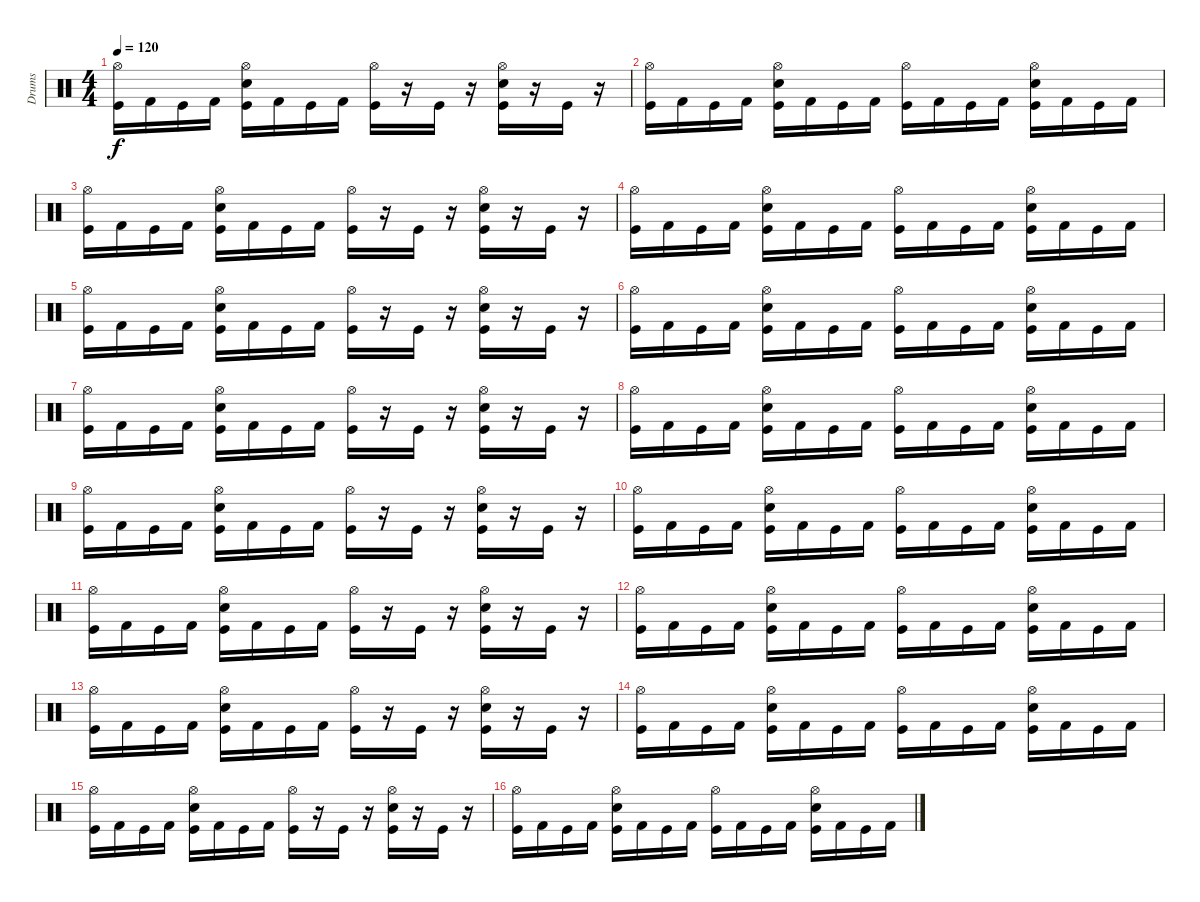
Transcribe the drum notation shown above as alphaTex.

\track ("Drums" "Drums") {instrument percussion}
\staff {score}
\articulation defaults
\ts (4 4)
\tempo 120
\clef neutral
\ks c
("Hi-Hat (open)" "Kick (hit)").16{dy f} "Kick (hit) 2".16 "Kick (hit)".16 "Kick (hit) 2".16 ("Hi-Hat (open)" "Snare (hit) 2" "Kick (hit)").16 "Kick (hit) 2".16 "Kick (hit)".16 "Kick (hit) 2".16 ("Hi-Hat (open)" "Kick (hit)").16 r.16 "Kick (hit)".16 r.16 ("Hi-Hat (open)" "Snare (hit) 2" "Kick (hit)").16 r.16 "Kick (hit)".16 r.16 |
("Hi-Hat (open)" "Kick (hit)").16 "Kick (hit) 2".16 "Kick (hit)".16 "Kick (hit) 2".16 ("Hi-Hat (open)" "Snare (hit) 2" "Kick (hit)").16 "Kick (hit) 2".16 "Kick (hit)".16 "Kick (hit) 2".16 ("Hi-Hat (open)" "Kick (hit)").16 "Kick (hit) 2".16 "Kick (hit)".16 "Kick (hit) 2".16 ("Hi-Hat (open)" "Snare (hit) 2" "Kick (hit)").16 "Kick (hit) 2".16 "Kick (hit)".16 "Kick (hit) 2".16 |
("Hi-Hat (open)" "Kick (hit)").16 "Kick (hit) 2".16 "Kick (hit)".16 "Kick (hit) 2".16 ("Hi-Hat (open)" "Snare (hit) 2" "Kick (hit)").16 "Kick (hit) 2".16 "Kick (hit)".16 "Kick (hit) 2".16 ("Hi-Hat (open)" "Kick (hit)").16 r.16 "Kick (hit)".16 r.16 ("Hi-Hat (open)" "Snare (hit) 2" "Kick (hit)").16 r.16 "Kick (hit)".16 r.16 |
("Hi-Hat (open)" "Kick (hit)").16 "Kick (hit) 2".16 "Kick (hit)".16 "Kick (hit) 2".16 ("Hi-Hat (open)" "Snare (hit) 2" "Kick (hit)").16 "Kick (hit) 2".16 "Kick (hit)".16 "Kick (hit) 2".16 ("Hi-Hat (open)" "Kick (hit)").16 "Kick (hit) 2".16 "Kick (hit)".16 "Kick (hit) 2".16 ("Hi-Hat (open)" "Snare (hit) 2" "Kick (hit)").16 "Kick (hit) 2".16 "Kick (hit)".16 "Kick (hit) 2".16 |
("Hi-Hat (open)" "Kick (hit)").16 "Kick (hit) 2".16 "Kick (hit)".16 "Kick (hit) 2".16 ("Hi-Hat (open)" "Snare (hit) 2" "Kick (hit)").16 "Kick (hit) 2".16 "Kick (hit)".16 "Kick (hit) 2".16 ("Hi-Hat (open)" "Kick (hit)").16 r.16 "Kick (hit)".16 r.16 ("Hi-Hat (open)" "Snare (hit) 2" "Kick (hit)").16 r.16 "Kick (hit)".16 r.16 |
("Hi-Hat (open)" "Kick (hit)").16 "Kick (hit) 2".16 "Kick (hit)".16 "Kick (hit) 2".16 ("Hi-Hat (open)" "Snare (hit) 2" "Kick (hit)").16 "Kick (hit) 2".16 "Kick (hit)".16 "Kick (hit) 2".16 ("Hi-Hat (open)" "Kick (hit)").16 "Kick (hit) 2".16 "Kick (hit)".16 "Kick (hit) 2".16 ("Hi-Hat (open)" "Snare (hit) 2" "Kick (hit)").16 "Kick (hit) 2".16 "Kick (hit)".16 "Kick (hit) 2".16 |
("Hi-Hat (open)" "Kick (hit)").16 "Kick (hit) 2".16 "Kick (hit)".16 "Kick (hit) 2".16 ("Hi-Hat (open)" "Snare (hit) 2" "Kick (hit)").16 "Kick (hit) 2".16 "Kick (hit)".16 "Kick (hit) 2".16 ("Hi-Hat (open)" "Kick (hit)").16 r.16 "Kick (hit)".16 r.16 ("Hi-Hat (open)" "Snare (hit) 2" "Kick (hit)").16 r.16 "Kick (hit)".16 r.16 |
("Hi-Hat (open)" "Kick (hit)").16 "Kick (hit) 2".16 "Kick (hit)".16 "Kick (hit) 2".16 ("Hi-Hat (open)" "Snare (hit) 2" "Kick (hit)").16 "Kick (hit) 2".16 "Kick (hit)".16 "Kick (hit) 2".16 ("Hi-Hat (open)" "Kick (hit)").16 "Kick (hit) 2".16 "Kick (hit)".16 "Kick (hit) 2".16 ("Hi-Hat (open)" "Snare (hit) 2" "Kick (hit)").16 "Kick (hit) 2".16 "Kick (hit)".16 "Kick (hit) 2".16 |
("Hi-Hat (open)" "Kick (hit)").16 "Kick (hit) 2".16 "Kick (hit)".16 "Kick (hit) 2".16 ("Hi-Hat (open)" "Snare (hit) 2" "Kick (hit)").16 "Kick (hit) 2".16 "Kick (hit)".16 "Kick (hit) 2".16 ("Hi-Hat (open)" "Kick (hit)").16 r.16 "Kick (hit)".16 r.16 ("Hi-Hat (open)" "Snare (hit) 2" "Kick (hit)").16 r.16 "Kick (hit)".16 r.16 |
("Hi-Hat (open)" "Kick (hit)").16 "Kick (hit) 2".16 "Kick (hit)".16 "Kick (hit) 2".16 ("Hi-Hat (open)" "Snare (hit) 2" "Kick (hit)").16 "Kick (hit) 2".16 "Kick (hit)".16 "Kick (hit) 2".16 ("Hi-Hat (open)" "Kick (hit)").16 "Kick (hit) 2".16 "Kick (hit)".16 "Kick (hit) 2".16 ("Hi-Hat (open)" "Snare (hit) 2" "Kick (hit)").16 "Kick (hit) 2".16 "Kick (hit)".16 "Kick (hit) 2".16 |
("Hi-Hat (open)" "Kick (hit)").16 "Kick (hit) 2".16 "Kick (hit)".16 "Kick (hit) 2".16 ("Hi-Hat (open)" "Snare (hit) 2" "Kick (hit)").16 "Kick (hit) 2".16 "Kick (hit)".16 "Kick (hit) 2".16 ("Hi-Hat (open)" "Kick (hit)").16 r.16 "Kick (hit)".16 r.16 ("Hi-Hat (open)" "Snare (hit) 2" "Kick (hit)").16 r.16 "Kick (hit)".16 r.16 |
("Hi-Hat (open)" "Kick (hit)").16 "Kick (hit) 2".16 "Kick (hit)".16 "Kick (hit) 2".16 ("Hi-Hat (open)" "Snare (hit) 2" "Kick (hit)").16 "Kick (hit) 2".16 "Kick (hit)".16 "Kick (hit) 2".16 ("Hi-Hat (open)" "Kick (hit)").16 "Kick (hit) 2".16 "Kick (hit)".16 "Kick (hit) 2".16 ("Hi-Hat (open)" "Snare (hit) 2" "Kick (hit)").16 "Kick (hit) 2".16 "Kick (hit)".16 "Kick (hit) 2".16 |
("Hi-Hat (open)" "Kick (hit)").16 "Kick (hit) 2".16 "Kick (hit)".16 "Kick (hit) 2".16 ("Hi-Hat (open)" "Snare (hit) 2" "Kick (hit)").16 "Kick (hit) 2".16 "Kick (hit)".16 "Kick (hit) 2".16 ("Hi-Hat (open)" "Kick (hit)").16 r.16 "Kick (hit)".16 r.16 ("Hi-Hat (open)" "Snare (hit) 2" "Kick (hit)").16 r.16 "Kick (hit)".16 r.16 |
("Hi-Hat (open)" "Kick (hit)").16 "Kick (hit) 2".16 "Kick (hit)".16 "Kick (hit) 2".16 ("Hi-Hat (open)" "Snare (hit) 2" "Kick (hit)").16 "Kick (hit) 2".16 "Kick (hit)".16 "Kick (hit) 2".16 ("Hi-Hat (open)" "Kick (hit)").16 "Kick (hit) 2".16 "Kick (hit)".16 "Kick (hit) 2".16 ("Hi-Hat (open)" "Snare (hit) 2" "Kick (hit)").16 "Kick (hit) 2".16 "Kick (hit)".16 "Kick (hit) 2".16 |
("Hi-Hat (open)" "Kick (hit)").16 "Kick (hit) 2".16 "Kick (hit)".16 "Kick (hit) 2".16 ("Hi-Hat (open)" "Snare (hit) 2" "Kick (hit)").16 "Kick (hit) 2".16 "Kick (hit)".16 "Kick (hit) 2".16 ("Hi-Hat (open)" "Kick (hit)").16 r.16 "Kick (hit)".16 r.16 ("Hi-Hat (open)" "Snare (hit) 2" "Kick (hit)").16 r.16 "Kick (hit)".16 r.16 |
("Hi-Hat (open)" "Kick (hit)").16 "Kick (hit) 2".16 "Kick (hit)".16 "Kick (hit) 2".16 ("Hi-Hat (open)" "Snare (hit) 2" "Kick (hit)").16 "Kick (hit) 2".16 "Kick (hit)".16 "Kick (hit) 2".16 ("Hi-Hat (open)" "Kick (hit)").16 "Kick (hit) 2".16 "Kick (hit)".16 "Kick (hit) 2".16 ("Hi-Hat (open)" "Snare (hit) 2" "Kick (hit)").16 "Kick (hit) 2".16 "Kick (hit)".16 "Kick (hit) 2".16
